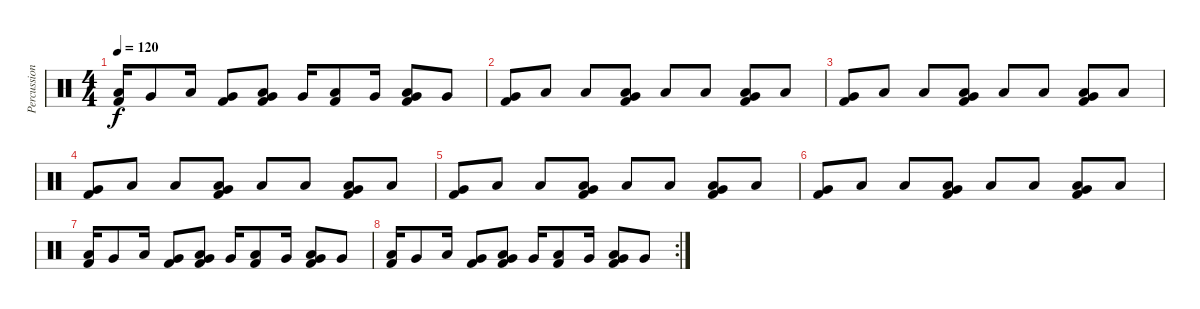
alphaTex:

\track ("Percussion" "Percussion") {instrument percussion}
\staff {score}
\articulation defaults
\ts (4 4)
\tempo 120
\clef neutral
\ks c
("Low Floor Tom (hit)" "Kick (hit) 2").16{dy f} "Very Low Tom (hit)".8 "Low Floor Tom (hit)".16 ("Very Low Tom (hit)" "Kick (hit) 2").8 ("Low Floor Tom (hit)" "Very Low Tom (hit)" "Kick (hit) 2").8 "Very Low Tom (hit)".16 ("Low Floor Tom (hit)" "Kick (hit) 2").8 "Very Low Tom (hit)".16 ("Low Floor Tom (hit)" "Very Low Tom (hit)" "Kick (hit) 2").8 "Very Low Tom (hit)".8 |
("Very Low Tom (hit)" "Kick (hit) 2").8 "Low Floor Tom (hit)".8 "Low Floor Tom (hit)".8 ("Low Floor Tom (hit)" "Very Low Tom (hit)" "Kick (hit) 2").8 "Low Floor Tom (hit)".8 "Low Floor Tom (hit)".8 ("Low Floor Tom (hit)" "Very Low Tom (hit)" "Kick (hit) 2").8 "Low Floor Tom (hit)".8 |
("Very Low Tom (hit)" "Kick (hit) 2").8 "Low Floor Tom (hit)".8 "Low Floor Tom (hit)".8 ("Low Floor Tom (hit)" "Very Low Tom (hit)" "Kick (hit) 2").8 "Low Floor Tom (hit)".8 "Low Floor Tom (hit)".8 ("Low Floor Tom (hit)" "Very Low Tom (hit)" "Kick (hit) 2").8 "Low Floor Tom (hit)".8 |
("Very Low Tom (hit)" "Kick (hit) 2").8 "Low Floor Tom (hit)".8 "Low Floor Tom (hit)".8 ("Low Floor Tom (hit)" "Very Low Tom (hit)" "Kick (hit) 2").8 "Low Floor Tom (hit)".8 "Low Floor Tom (hit)".8 ("Low Floor Tom (hit)" "Very Low Tom (hit)" "Kick (hit) 2").8 "Low Floor Tom (hit)".8 |
("Very Low Tom (hit)" "Kick (hit) 2").8 "Low Floor Tom (hit)".8 "Low Floor Tom (hit)".8 ("Low Floor Tom (hit)" "Very Low Tom (hit)" "Kick (hit) 2").8 "Low Floor Tom (hit)".8 "Low Floor Tom (hit)".8 ("Low Floor Tom (hit)" "Very Low Tom (hit)" "Kick (hit) 2").8 "Low Floor Tom (hit)".8 |
("Very Low Tom (hit)" "Kick (hit) 2").8 "Low Floor Tom (hit)".8 "Low Floor Tom (hit)".8 ("Low Floor Tom (hit)" "Very Low Tom (hit)" "Kick (hit) 2").8 "Low Floor Tom (hit)".8 "Low Floor Tom (hit)".8 ("Low Floor Tom (hit)" "Very Low Tom (hit)" "Kick (hit) 2").8 "Low Floor Tom (hit)".8 |
("Low Floor Tom (hit)" "Kick (hit) 2").16 "Very Low Tom (hit)".8 "Low Floor Tom (hit)".16 ("Very Low Tom (hit)" "Kick (hit) 2").8 ("Low Floor Tom (hit)" "Very Low Tom (hit)" "Kick (hit) 2").8 "Very Low Tom (hit)".16 ("Low Floor Tom (hit)" "Kick (hit) 2").8 "Very Low Tom (hit)".16 ("Low Floor Tom (hit)" "Very Low Tom (hit)" "Kick (hit) 2").8 "Very Low Tom (hit)".8 |
\rc 2
("Low Floor Tom (hit)" "Kick (hit) 2").16 "Very Low Tom (hit)".8 "Low Floor Tom (hit)".16 ("Very Low Tom (hit)" "Kick (hit) 2").8 ("Low Floor Tom (hit)" "Very Low Tom (hit)" "Kick (hit) 2").8 "Very Low Tom (hit)".16 ("Low Floor Tom (hit)" "Kick (hit) 2").8 "Very Low Tom (hit)".16 ("Low Floor Tom (hit)" "Very Low Tom (hit)" "Kick (hit) 2").8 "Very Low Tom (hit)".8
